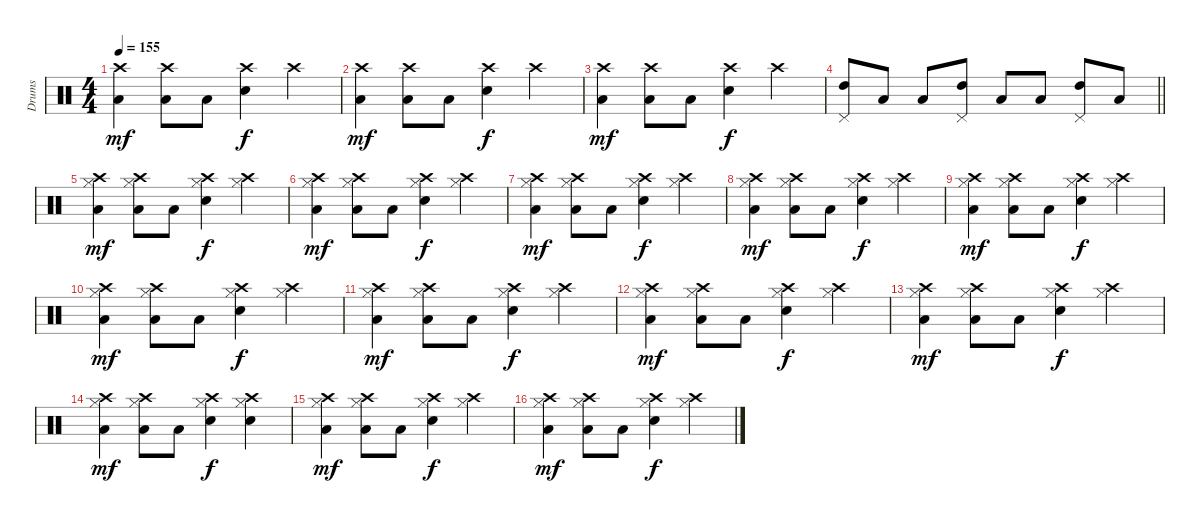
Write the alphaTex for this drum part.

\track ("Drums" "Drums") {instrument percussion}
\staff {score}
\articulation defaults
\ts (4 4)
\tempo 155
\clef neutral
\ks c
("Crash high (hit)" "Low Floor Tom (hit)").4{dy mf} ("Crash high (hit)" "Low Floor Tom (hit)").8 "Low Floor Tom (hit)".8 ("Crash high (hit)" "Electric Snare (hit)").4{dy f} "Crash high (hit)".4 |
("Crash high (hit)" "Low Floor Tom (hit)").4{dy mf} ("Crash high (hit)" "Low Floor Tom (hit)").8 "Low Floor Tom (hit)".8 ("Crash high (hit)" "Electric Snare (hit)").4{dy f} "Crash high (hit)".4 |
("Crash high (hit)" "Low Floor Tom (hit)").4{dy mf} ("Crash high (hit)" "Low Floor Tom (hit)").8 "Low Floor Tom (hit)".8 ("Crash high (hit)" "Electric Snare (hit)").4{dy f} "Crash high (hit)".4 |
\barLineRight lightlight
("High Tom (hit)" "Pedal Hi-Hat (hit)").8 "Low Tom (hit)".8 "Low Tom (hit)".8 ("High Tom (hit)" "Pedal Hi-Hat (hit)").8 "Low Tom (hit)".8 "Low Tom (hit)".8 ("High Tom (hit)" "Pedal Hi-Hat (hit)").8 "Low Tom (hit)".8 |
("Crash high (hit)" "Low Floor Tom (hit)" "Hi-Hat (closed)").4{dy mf} ("Crash high (hit)" "Low Floor Tom (hit)" "Hi-Hat (closed)").8 "Low Floor Tom (hit)".8 ("Crash high (hit)" "Electric Snare (hit)" "Hi-Hat (closed)").4{dy f} ("Crash high (hit)" "Hi-Hat (closed)").4 |
("Crash high (hit)" "Low Floor Tom (hit)" "Hi-Hat (closed)").4{dy mf} ("Crash high (hit)" "Low Floor Tom (hit)" "Hi-Hat (closed)").8 "Low Floor Tom (hit)".8 ("Crash high (hit)" "Electric Snare (hit)" "Hi-Hat (closed)").4{dy f} ("Crash high (hit)" "Hi-Hat (closed)").4 |
("Crash high (hit)" "Low Floor Tom (hit)" "Hi-Hat (closed)").4{dy mf} ("Crash high (hit)" "Low Floor Tom (hit)" "Hi-Hat (closed)").8 "Low Floor Tom (hit)".8 ("Crash high (hit)" "Electric Snare (hit)" "Hi-Hat (closed)").4{dy f} ("Crash high (hit)" "Hi-Hat (closed)").4 |
("Crash high (hit)" "Low Floor Tom (hit)" "Hi-Hat (closed)").4{dy mf} ("Crash high (hit)" "Low Floor Tom (hit)" "Hi-Hat (closed)").8 "Low Floor Tom (hit)".8 ("Crash high (hit)" "Electric Snare (hit)" "Hi-Hat (closed)").4{dy f} ("Crash high (hit)" "Hi-Hat (closed)").4 |
("Crash high (hit)" "Low Floor Tom (hit)" "Hi-Hat (closed)").4{dy mf} ("Crash high (hit)" "Low Floor Tom (hit)" "Hi-Hat (closed)").8 "Low Floor Tom (hit)".8 ("Crash high (hit)" "Electric Snare (hit)" "Hi-Hat (closed)").4{dy f} ("Crash high (hit)" "Hi-Hat (closed)").4 |
("Crash high (hit)" "Low Floor Tom (hit)" "Hi-Hat (closed)").4{dy mf} ("Crash high (hit)" "Low Floor Tom (hit)" "Hi-Hat (closed)").8 "Low Floor Tom (hit)".8 ("Crash high (hit)" "Electric Snare (hit)" "Hi-Hat (closed)").4{dy f} ("Crash high (hit)" "Hi-Hat (closed)").4 |
("Crash high (hit)" "Low Floor Tom (hit)" "Hi-Hat (closed)").4{dy mf} ("Crash high (hit)" "Low Floor Tom (hit)" "Hi-Hat (closed)").8 "Low Floor Tom (hit)".8 ("Crash high (hit)" "Electric Snare (hit)" "Hi-Hat (closed)").4{dy f} ("Crash high (hit)" "Hi-Hat (closed)").4 |
("Crash high (hit)" "Low Floor Tom (hit)" "Hi-Hat (closed)").4{dy mf} ("Crash high (hit)" "Low Floor Tom (hit)" "Hi-Hat (closed)").8 "Low Floor Tom (hit)".8 ("Crash high (hit)" "Electric Snare (hit)" "Hi-Hat (closed)").4{dy f} ("Crash high (hit)" "Hi-Hat (closed)").4 |
("Crash high (hit)" "Low Floor Tom (hit)" "Hi-Hat (closed)").4{dy mf} ("Crash high (hit)" "Low Floor Tom (hit)" "Hi-Hat (closed)").8 "Low Floor Tom (hit)".8 ("Crash high (hit)" "Electric Snare (hit)" "Hi-Hat (closed)").4{dy f} ("Crash high (hit)" "Hi-Hat (closed)").4 |
("Crash high (hit)" "Low Floor Tom (hit)" "Hi-Hat (closed)").4{dy mf} ("Crash high (hit)" "Low Floor Tom (hit)" "Hi-Hat (closed)").8 "Low Floor Tom (hit)".8 ("Crash high (hit)" "Electric Snare (hit)" "Hi-Hat (closed)").4{dy f} ("Crash high (hit)" "Electric Snare (hit)" "Hi-Hat (closed)").4 |
("Crash high (hit)" "Low Floor Tom (hit)" "Hi-Hat (closed)").4{dy mf} ("Crash high (hit)" "Low Floor Tom (hit)" "Hi-Hat (closed)").8 "Low Floor Tom (hit)".8 ("Crash high (hit)" "Electric Snare (hit)" "Hi-Hat (closed)").4{dy f} ("Crash high (hit)" "Hi-Hat (closed)").4 |
("Crash high (hit)" "Low Floor Tom (hit)" "Hi-Hat (closed)").4{dy mf} ("Crash high (hit)" "Low Floor Tom (hit)" "Hi-Hat (closed)").8 "Low Floor Tom (hit)".8 ("Crash high (hit)" "Electric Snare (hit)" "Hi-Hat (closed)").4{dy f} ("Crash high (hit)" "Hi-Hat (closed)").4
